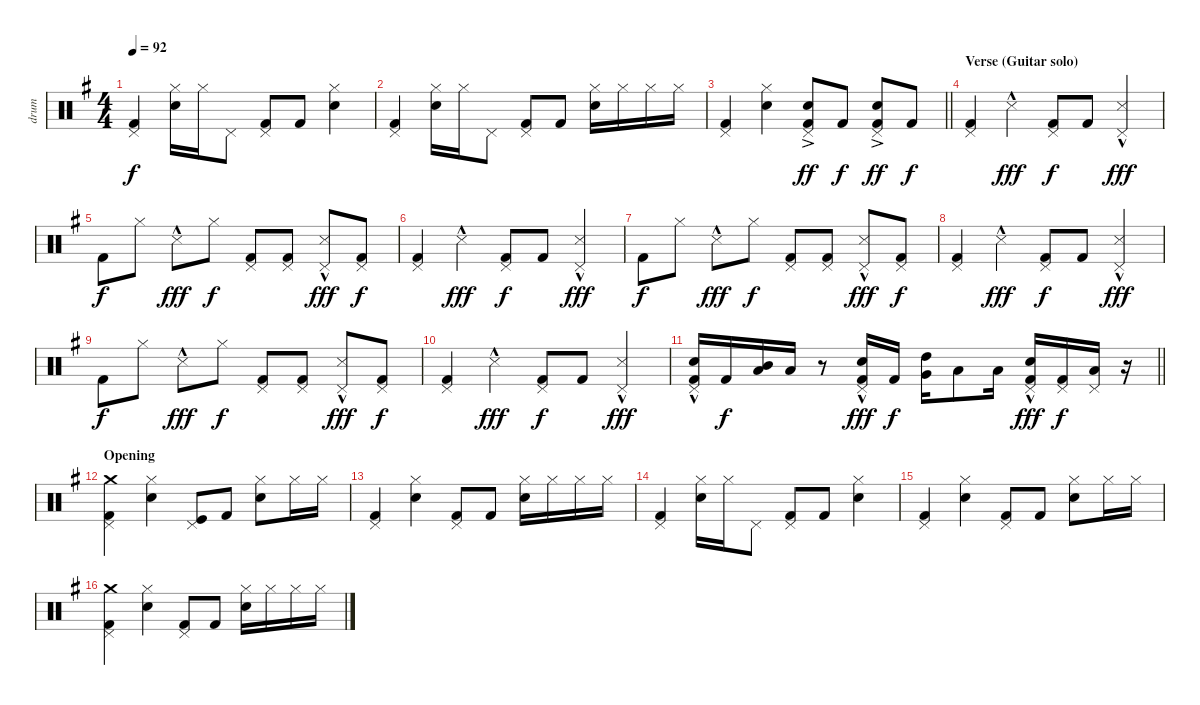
\track ("drum" "drum") {instrument percussion}
\staff {score}
\articulation defaults
\ts (4 4)
\tempo 92
\clef neutral
\ks g
("Kick (hit) 2" "Pedal Hi-Hat (hit)").4{dy f} ("Snare (hit) 2" "Hi-Hat (closed)").16 "Hi-Hat (closed)".16 "Pedal Hi-Hat (hit)".8 ("Kick (hit) 2" "Pedal Hi-Hat (hit)").8 "Kick (hit) 2".8 ("Snare (hit) 2" "Hi-Hat (closed)").4 |
("Kick (hit) 2" "Pedal Hi-Hat (hit)").4 ("Snare (hit) 2" "Hi-Hat (closed)").16 "Hi-Hat (closed)".16 "Pedal Hi-Hat (hit)".8 ("Kick (hit) 2" "Pedal Hi-Hat (hit)").8 "Kick (hit) 2".8 ("Snare (hit) 2" "Hi-Hat (closed)").16 "Hi-Hat (closed)".16 "Hi-Hat (closed)".16 "Hi-Hat (closed)".16 |
\barLineRight lightlight
("Kick (hit) 2" "Pedal Hi-Hat (hit)").4 ("Snare (hit) 2" "Hi-Hat (closed)").4 ("Snare (hit) 2"{ac} "Kick (hit) 2"{ac} "Pedal Hi-Hat (hit)"{ac}).8{dy ff} "Kick (hit) 2".8{dy f} ("Snare (hit) 2"{ac} "Kick (hit) 2"{ac} "Pedal Hi-Hat (hit)"{ac}).8{dy ff} "Kick (hit) 2".8{dy f} |
\section ("" "Verse (Guitar solo)")
("Kick (hit) 2" "Pedal Hi-Hat (hit)").4 "Snare (side stick) 3"{hac}.4{dy fff} ("Kick (hit) 2" "Pedal Hi-Hat (hit)").8{dy f} "Kick (hit) 2".8 ("Pedal Hi-Hat (hit)"{hac} "Snare (side stick) 3"{hac}).4{dy fff} |
"Kick (hit) 2".8{dy f} "Hi-Hat (closed)".8 "Snare (side stick) 3"{hac}.8{dy fff} "Hi-Hat (closed)".8{dy f} ("Kick (hit) 2" "Pedal Hi-Hat (hit)").8 ("Kick (hit) 2" "Pedal Hi-Hat (hit)").8 ("Pedal Hi-Hat (hit)"{hac} "Snare (side stick) 3"{hac}).8{dy fff} ("Kick (hit) 2" "Pedal Hi-Hat (hit)").8{dy f} |
("Kick (hit) 2" "Pedal Hi-Hat (hit)").4 "Snare (side stick) 3"{hac}.4{dy fff} ("Kick (hit) 2" "Pedal Hi-Hat (hit)").8{dy f} "Kick (hit) 2".8 ("Pedal Hi-Hat (hit)"{hac} "Snare (side stick) 3"{hac}).4{dy fff} |
"Kick (hit) 2".8{dy f} "Hi-Hat (closed)".8 "Snare (side stick) 3"{hac}.8{dy fff} "Hi-Hat (closed)".8{dy f} ("Kick (hit) 2" "Pedal Hi-Hat (hit)").8 ("Kick (hit) 2" "Pedal Hi-Hat (hit)").8 ("Pedal Hi-Hat (hit)"{hac} "Snare (side stick) 3"{hac}).8{dy fff} ("Kick (hit) 2" "Pedal Hi-Hat (hit)").8{dy f} |
("Kick (hit) 2" "Pedal Hi-Hat (hit)").4 "Snare (side stick) 3"{hac}.4{dy fff} ("Kick (hit) 2" "Pedal Hi-Hat (hit)").8{dy f} "Kick (hit) 2".8 ("Pedal Hi-Hat (hit)"{hac} "Snare (side stick) 3"{hac}).4{dy fff} |
"Kick (hit) 2".8{dy f} "Hi-Hat (closed)".8 "Snare (side stick) 3"{hac}.8{dy fff} "Hi-Hat (closed)".8{dy f} ("Kick (hit) 2" "Pedal Hi-Hat (hit)").8 ("Kick (hit) 2" "Pedal Hi-Hat (hit)").8 ("Pedal Hi-Hat (hit)"{hac} "Snare (side stick) 3"{hac}).8{dy fff} ("Kick (hit) 2" "Pedal Hi-Hat (hit)").8{dy f} |
("Kick (hit) 2" "Pedal Hi-Hat (hit)").4 "Snare (side stick) 3"{hac}.4{dy fff} ("Kick (hit) 2" "Pedal Hi-Hat (hit)").8{dy f} "Kick (hit) 2".8 ("Pedal Hi-Hat (hit)"{hac} "Snare (side stick) 3"{hac}).4{dy fff} |
\barLineRight lightlight
("Snare (hit) 2"{hac} "Kick (hit) 2" "Pedal Hi-Hat (hit)").16 "Kick (hit) 2".16{dy f} ("Mid Tom (hit)" "Low Floor Tom (hit)").16 "Low Tom (hit)".16 r.8 ("Snare (hit) 2"{hac} "Kick (hit) 2" "Pedal Hi-Hat (hit)").16{dy fff} "Kick (hit) 2".16{dy f} ("High Tom (hit)" "Very Low Tom (hit)").16 "Low Tom (hit)".8 "Low Tom (hit)".16 ("Snare (hit) 2"{hac} "Kick (hit) 2"{hac} "Pedal Hi-Hat (hit)"{hac}).16{dy fff} ("Kick (hit) 2" "Pedal Hi-Hat (hit)").16{dy f} ("Low Tom (hit)" "Pedal Hi-Hat (hit)").16 r.16 |
\section ("" "Opening")
("Kick (hit) 2" "Pedal Hi-Hat (hit)" "Crash medium (hit)").4 ("Snare (hit) 2" "Hi-Hat (closed)").4 ("Kick (hit)" "Pedal Hi-Hat (hit)").8 "Kick (hit) 2".8 ("Snare (hit) 2" "Hi-Hat (closed)").8 "Hi-Hat (closed)".16 "Hi-Hat (closed)".16 |
("Kick (hit) 2" "Pedal Hi-Hat (hit)").4 ("Snare (hit) 2" "Hi-Hat (closed)").4 ("Kick (hit) 2" "Pedal Hi-Hat (hit)").8 "Kick (hit) 2".8 ("Snare (hit) 2" "Hi-Hat (closed)").16 "Hi-Hat (closed)".16 "Hi-Hat (closed)".16 "Hi-Hat (closed)".16 |
("Kick (hit) 2" "Pedal Hi-Hat (hit)").4 ("Snare (hit) 2" "Hi-Hat (closed)").16 "Hi-Hat (closed)".16 "Pedal Hi-Hat (hit)".8 ("Kick (hit) 2" "Pedal Hi-Hat (hit)").8 "Kick (hit) 2".8 ("Snare (hit) 2" "Hi-Hat (closed)").4 |
("Kick (hit) 2" "Pedal Hi-Hat (hit)").4 ("Snare (hit) 2" "Hi-Hat (closed)").4 ("Kick (hit) 2" "Pedal Hi-Hat (hit)").8 "Kick (hit) 2".8 ("Snare (hit) 2" "Hi-Hat (closed)").8 "Hi-Hat (closed)".16 "Hi-Hat (closed)".16 |
("Kick (hit) 2" "Pedal Hi-Hat (hit)" "Crash medium (hit)").4 ("Snare (hit) 2" "Hi-Hat (closed)").4 ("Kick (hit) 2" "Pedal Hi-Hat (hit)").8 "Kick (hit) 2".8 ("Snare (hit) 2" "Hi-Hat (closed)").16 "Hi-Hat (closed)".16 "Hi-Hat (closed)".16 "Hi-Hat (closed)".16
